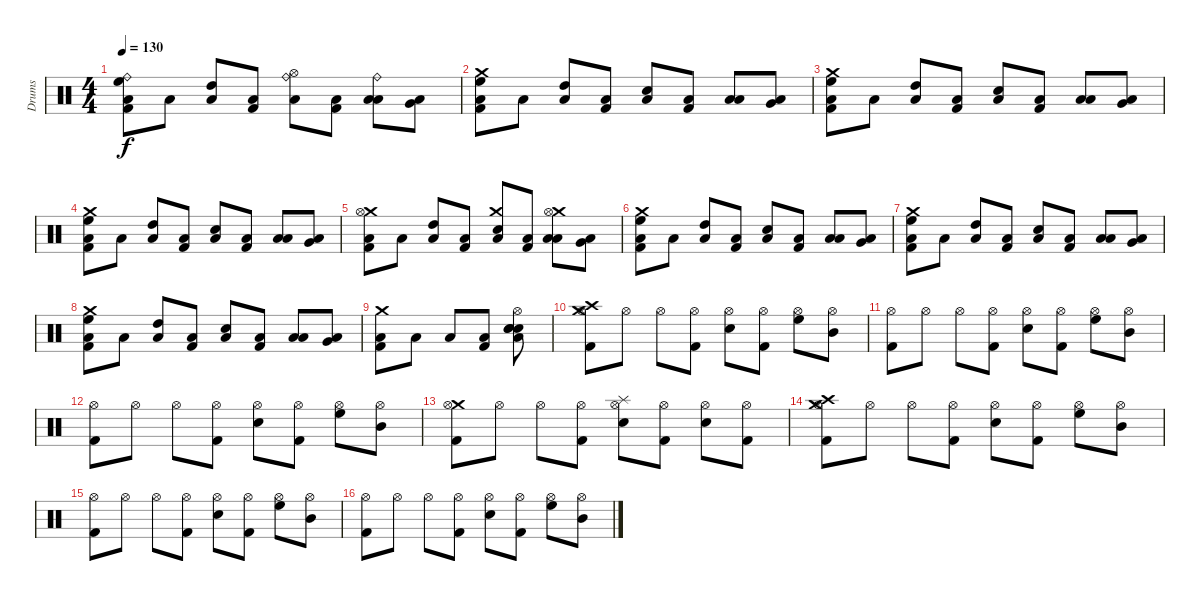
\track ("Drums" "Drums") {instrument percussion}
\staff {score}
\articulation defaults
\ts (4 4)
\tempo 130
\clef neutral
\ks c
("Ride (bell)" "High Floor Tom (hit)" "Kick (hit) 2" "Low Floor Tom (hit)").8{dy f} "Low Floor Tom (hit)".8 ("High Tom (hit)" "Low Floor Tom (hit)").8 ("Kick (hit) 2" "Low Floor Tom (hit)").8 ("Ride (bell)" "Hi-Hat (open)" "Low Floor Tom (hit)").8 ("Kick (hit) 2" "Low Floor Tom (hit)").8 ("Ride (bell)" "Low Tom (hit)" "Low Floor Tom (hit)").8 ("Very Low Tom (hit)" "Low Floor Tom (hit)").8 |
("Crash medium (hit)" "High Floor Tom (hit)" "Kick (hit) 2" "Low Floor Tom (hit)").8 "Low Floor Tom (hit)".8 ("High Tom (hit)" "Low Floor Tom (hit)").8 ("Kick (hit) 2" "Low Floor Tom (hit)").8 ("Snare (hit) 2" "Low Floor Tom (hit)").8 ("Kick (hit) 2" "Low Floor Tom (hit)").8 ("Low Tom (hit)" "Low Floor Tom (hit)").8 ("Very Low Tom (hit)" "Low Floor Tom (hit)").8 |
("Crash medium (hit)" "High Floor Tom (hit)" "Kick (hit) 2" "Low Floor Tom (hit)").8 "Low Floor Tom (hit)".8 ("High Tom (hit)" "Low Floor Tom (hit)").8 ("Kick (hit) 2" "Low Floor Tom (hit)").8 ("Snare (hit) 2" "Low Floor Tom (hit)").8 ("Kick (hit) 2" "Low Floor Tom (hit)").8 ("Low Tom (hit)" "Low Floor Tom (hit)").8 ("Very Low Tom (hit)" "Low Floor Tom (hit)").8 |
("Crash medium (hit)" "High Floor Tom (hit)" "Kick (hit) 2" "Low Floor Tom (hit)").8 "Low Floor Tom (hit)".8 ("High Tom (hit)" "Low Floor Tom (hit)").8 ("Kick (hit) 2" "Low Floor Tom (hit)").8 ("Snare (hit) 2" "Low Floor Tom (hit)").8 ("Kick (hit) 2" "Low Floor Tom (hit)").8 ("Low Tom (hit)" "Low Floor Tom (hit)").8 ("Very Low Tom (hit)" "Low Floor Tom (hit)").8 |
("Crash medium (hit)" "Kick (hit) 2" "Hi-Hat (open)" "Low Floor Tom (hit)").8 "Low Floor Tom (hit)".8 ("High Tom (hit)" "Low Floor Tom (hit)").8 ("Kick (hit) 2" "Low Floor Tom (hit)").8 ("Crash medium (hit)" "Snare (hit) 2" "Low Floor Tom (hit)").8 ("Kick (hit) 2" "Low Floor Tom (hit)").8 ("Crash medium (hit)" "Low Tom (hit)" "Hi-Hat (open)" "Low Floor Tom (hit)").8 ("Very Low Tom (hit)" "Low Floor Tom (hit)").8 |
("Crash medium (hit)" "High Floor Tom (hit)" "Kick (hit) 2" "Low Floor Tom (hit)").8 "Low Floor Tom (hit)".8 ("High Tom (hit)" "Low Floor Tom (hit)").8 ("Kick (hit) 2" "Low Floor Tom (hit)").8 ("Snare (hit) 2" "Low Floor Tom (hit)").8 ("Kick (hit) 2" "Low Floor Tom (hit)").8 ("Low Tom (hit)" "Low Floor Tom (hit)").8 ("Very Low Tom (hit)" "Low Floor Tom (hit)").8 |
("Crash medium (hit)" "High Floor Tom (hit)" "Kick (hit) 2" "Low Floor Tom (hit)").8 "Low Floor Tom (hit)".8 ("High Tom (hit)" "Low Floor Tom (hit)").8 ("Kick (hit) 2" "Low Floor Tom (hit)").8 ("Snare (hit) 2" "Low Floor Tom (hit)").8 ("Kick (hit) 2" "Low Floor Tom (hit)").8 ("Low Tom (hit)" "Low Floor Tom (hit)").8 ("Very Low Tom (hit)" "Low Floor Tom (hit)").8 |
("Crash medium (hit)" "High Floor Tom (hit)" "Kick (hit) 2" "Low Floor Tom (hit)").8 "Low Floor Tom (hit)".8 ("High Tom (hit)" "Low Floor Tom (hit)").8 ("Kick (hit) 2" "Low Floor Tom (hit)").8 ("Snare (hit) 2" "Low Floor Tom (hit)").8 ("Kick (hit) 2" "Low Floor Tom (hit)").8 ("Low Tom (hit)" "Low Floor Tom (hit)").8 ("Very Low Tom (hit)" "Low Floor Tom (hit)").8 |
("Crash medium (hit)" "Kick (hit) 2" "Low Floor Tom (hit)").8 "Low Floor Tom (hit)".8 "Low Floor Tom (hit)".8 ("Kick (hit) 2" "Low Floor Tom (hit)").8 ("Snare (hit) 2" "Snare (hit) 2" "Snare (hit) 2" "Hi-Hat (open)" "Low Floor Tom (hit)").8 |
("Crash high (hit)" "Crash medium (hit)" "Kick (hit) 2" "Hi-Hat (open)").8 "Hi-Hat (open)".8 "Hi-Hat (open)".8 ("Kick (hit) 2" "Hi-Hat (open)").8 ("Snare (hit) 2" "Hi-Hat (open)").8 ("Kick (hit) 2" "Hi-Hat (open)").8 ("High Floor Tom (hit)" "Hi-Hat (open)").8 ("Mid Tom (hit)" "Hi-Hat (open)").8 |
("Kick (hit) 2" "Hi-Hat (open)").8 "Hi-Hat (open)".8 "Hi-Hat (open)".8 ("Kick (hit) 2" "Hi-Hat (open)").8 ("Snare (hit) 2" "Hi-Hat (open)").8 ("Kick (hit) 2" "Hi-Hat (open)").8 ("High Floor Tom (hit)" "Hi-Hat (open)").8 ("Mid Tom (hit)" "Hi-Hat (open)").8 |
("Kick (hit) 2" "Hi-Hat (open)").8 "Hi-Hat (open)".8 "Hi-Hat (open)".8 ("Kick (hit) 2" "Hi-Hat (open)").8 ("Snare (hit) 2" "Hi-Hat (open)").8 ("Kick (hit) 2" "Hi-Hat (open)").8 ("High Floor Tom (hit)" "Hi-Hat (open)").8 ("Mid Tom (hit)" "Hi-Hat (open)").8 |
("Crash medium (hit)" "Kick (hit) 2" "Hi-Hat (open)").8 "Hi-Hat (open)".8 "Hi-Hat (open)".8 ("Kick (hit) 2" "Hi-Hat (open)").8 ("Splash (hit)" "Snare (hit) 2" "Hi-Hat (open)").8 ("Kick (hit) 2" "Hi-Hat (open)").8 ("Snare (hit) 2" "Hi-Hat (open)").8 ("Kick (hit) 2" "Hi-Hat (open)").8 |
("Crash high (hit)" "Crash medium (hit)" "Kick (hit) 2" "Hi-Hat (open)").8 "Hi-Hat (open)".8 "Hi-Hat (open)".8 ("Kick (hit) 2" "Hi-Hat (open)").8 ("Snare (hit) 2" "Hi-Hat (open)").8 ("Kick (hit) 2" "Hi-Hat (open)").8 ("High Floor Tom (hit)" "Hi-Hat (open)").8 ("Mid Tom (hit)" "Hi-Hat (open)").8 |
("Kick (hit) 2" "Hi-Hat (open)").8 "Hi-Hat (open)".8 "Hi-Hat (open)".8 ("Kick (hit) 2" "Hi-Hat (open)").8 ("Snare (hit) 2" "Hi-Hat (open)").8 ("Kick (hit) 2" "Hi-Hat (open)").8 ("High Floor Tom (hit)" "Hi-Hat (open)").8 ("Mid Tom (hit)" "Hi-Hat (open)").8 |
("Kick (hit) 2" "Hi-Hat (open)").8 "Hi-Hat (open)".8 "Hi-Hat (open)".8 ("Kick (hit) 2" "Hi-Hat (open)").8 ("Snare (hit) 2" "Hi-Hat (open)").8 ("Kick (hit) 2" "Hi-Hat (open)").8 ("High Floor Tom (hit)" "Hi-Hat (open)").8 ("Mid Tom (hit)" "Hi-Hat (open)").8
